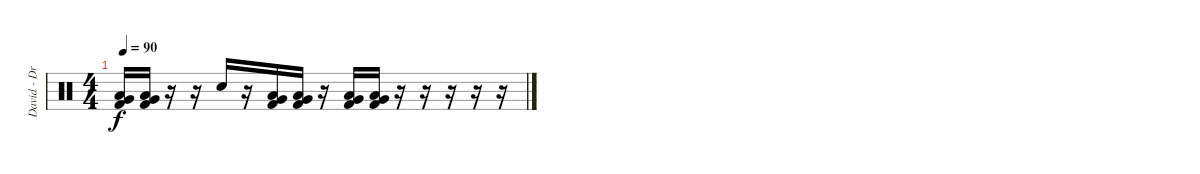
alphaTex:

\track ("David - Drums" "David - Dr") {instrument percussion}
\staff {score}
\articulation defaults
\ts (4 4)
\tempo 90
\clef neutral
\ks c
("Very Low Tom (hit)" "Low Floor Tom (hit)" "Kick (hit) 2").16{dy f} ("Very Low Tom (hit)" "Low Floor Tom (hit)" "Kick (hit) 2").16 r.16 r.16 "Electric Snare (hit)".16 r.16 ("Very Low Tom (hit)" "Low Floor Tom (hit)" "Kick (hit) 2").16 ("Very Low Tom (hit)" "Low Floor Tom (hit)" "Kick (hit) 2").16 r.16 ("Very Low Tom (hit)" "Low Floor Tom (hit)" "Kick (hit) 2").16 ("Very Low Tom (hit)" "Low Floor Tom (hit)" "Kick (hit) 2").16 r.16 r.16 r.16 r.16 r.16
